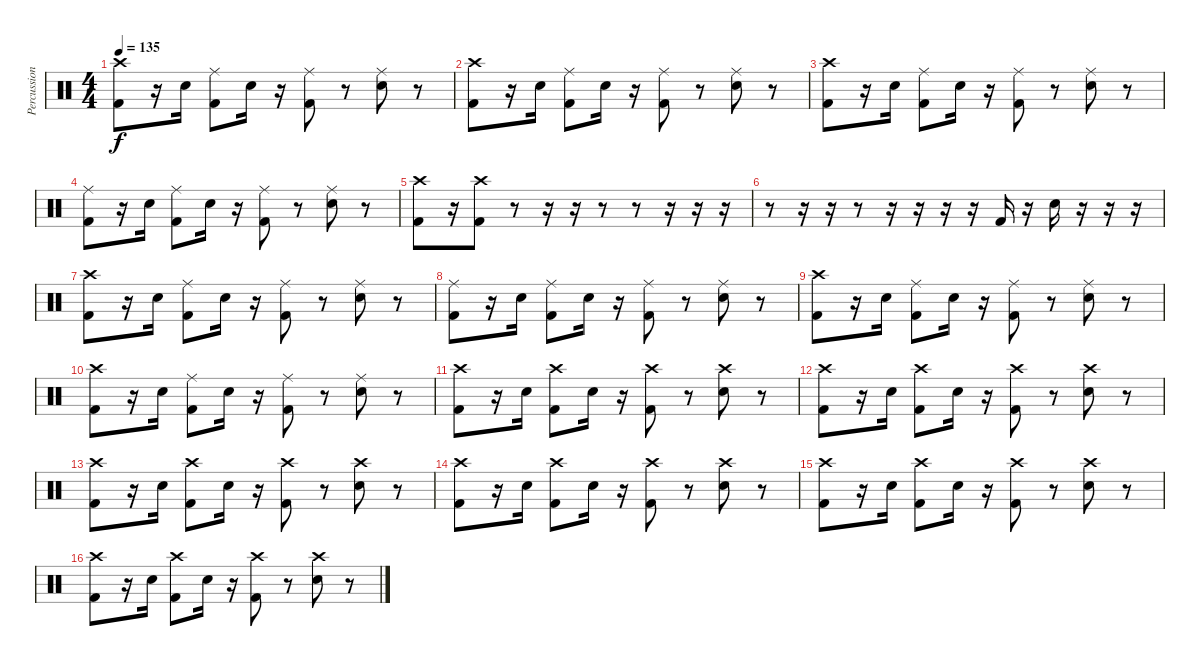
\track ("Percussions" "Percussion") {instrument percussion}
\staff {score}
\articulation defaults
\ts (4 4)
\tempo 135
\clef neutral
\ks c
("Crash high (hit)" "Kick (hit) 2").8{dy f} r.16 "Snare (hit) 2".16 ("Ride (middle)" "Kick (hit) 2").8 "Snare (hit) 2".16 r.16 ("Ride (middle)" "Kick (hit) 2").8 r.8 ("Ride (middle)" "Snare (hit) 2").8 r.8 |
("Crash high (hit)" "Kick (hit) 2").8 r.16 "Snare (hit) 2".16 ("Ride (middle)" "Kick (hit) 2").8 "Snare (hit) 2".16 r.16 ("Ride (middle)" "Kick (hit) 2").8 r.8 ("Ride (middle)" "Snare (hit) 2").8 r.8 |
("Crash high (hit)" "Kick (hit) 2").8 r.16 "Snare (hit) 2".16 ("Ride (middle)" "Kick (hit) 2").8 "Snare (hit) 2".16 r.16 ("Ride (middle)" "Kick (hit) 2").8 r.8 ("Ride (middle)" "Snare (hit) 2").8 r.8 |
("Ride (middle)" "Kick (hit) 2").8 r.16 "Snare (hit) 2".16 ("Ride (middle)" "Kick (hit) 2").8 "Snare (hit) 2".16 r.16 ("Ride (middle)" "Kick (hit) 2").8 r.8 ("Ride (middle)" "Snare (hit) 2").8 r.8 |
("Crash high (hit)" "Kick (hit) 2").8 r.16 ("Crash high (hit)" "Kick (hit) 2").8 r.8 r.16 r.16 r.8 r.8 r.16 r.16 r.16 |
r.8 r.16 r.16 r.8 r.16 r.16 r.16 r.16 "Kick (hit) 2".16 r.16 "Electric Snare (hit)".16 r.16 r.16 r.16 |
("Crash high (hit)" "Kick (hit) 2").8 r.16 "Snare (hit) 2".16 ("Ride (middle)" "Kick (hit) 2").8 "Snare (hit) 2".16 r.16 ("Ride (middle)" "Kick (hit) 2").8 r.8 ("Ride (middle)" "Snare (hit) 2").8 r.8 |
("Ride (middle)" "Kick (hit) 2").8 r.16 "Snare (hit) 2".16 ("Ride (middle)" "Kick (hit) 2").8 "Snare (hit) 2".16 r.16 ("Ride (middle)" "Kick (hit) 2").8 r.8 ("Ride (middle)" "Snare (hit) 2").8 r.8 |
("Crash high (hit)" "Kick (hit) 2").8 r.16 "Snare (hit) 2".16 ("Ride (middle)" "Kick (hit) 2").8 "Snare (hit) 2".16 r.16 ("Ride (middle)" "Kick (hit) 2").8 r.8 ("Ride (middle)" "Snare (hit) 2").8 r.8 |
("Crash high (hit)" "Kick (hit) 2").8 r.16 "Snare (hit) 2".16 ("Ride (middle)" "Kick (hit) 2").8 "Snare (hit) 2".16 r.16 ("Ride (middle)" "Kick (hit) 2").8 r.8 ("Ride (middle)" "Snare (hit) 2").8 r.8 |
("Crash high (hit)" "Kick (hit) 2").8 r.16 "Snare (hit) 2".16 ("Crash high (hit)" "Kick (hit) 2").8 "Snare (hit) 2".16 r.16 ("Crash high (hit)" "Kick (hit) 2").8 r.8 ("Crash high (hit)" "Snare (hit) 2").8 r.8 |
("Crash high (hit)" "Kick (hit) 2").8 r.16 "Snare (hit) 2".16 ("Crash high (hit)" "Kick (hit) 2").8 "Snare (hit) 2".16 r.16 ("Crash high (hit)" "Kick (hit) 2").8 r.8 ("Crash high (hit)" "Snare (hit) 2").8 r.8 |
("Crash high (hit)" "Kick (hit) 2").8 r.16 "Snare (hit) 2".16 ("Crash high (hit)" "Kick (hit) 2").8 "Snare (hit) 2".16 r.16 ("Crash high (hit)" "Kick (hit) 2").8 r.8 ("Crash high (hit)" "Snare (hit) 2").8 r.8 |
("Crash high (hit)" "Kick (hit) 2").8 r.16 "Snare (hit) 2".16 ("Crash high (hit)" "Kick (hit) 2").8 "Snare (hit) 2".16 r.16 ("Crash high (hit)" "Kick (hit) 2").8 r.8 ("Crash high (hit)" "Snare (hit) 2").8 r.8 |
("Crash high (hit)" "Kick (hit) 2").8 r.16 "Snare (hit) 2".16 ("Crash high (hit)" "Kick (hit) 2").8 "Snare (hit) 2".16 r.16 ("Crash high (hit)" "Kick (hit) 2").8 r.8 ("Crash high (hit)" "Snare (hit) 2").8 r.8 |
("Crash high (hit)" "Kick (hit) 2").8 r.16 "Snare (hit) 2".16 ("Crash high (hit)" "Kick (hit) 2").8 "Snare (hit) 2".16 r.16 ("Crash high (hit)" "Kick (hit) 2").8 r.8 ("Crash high (hit)" "Snare (hit) 2").8 r.8
